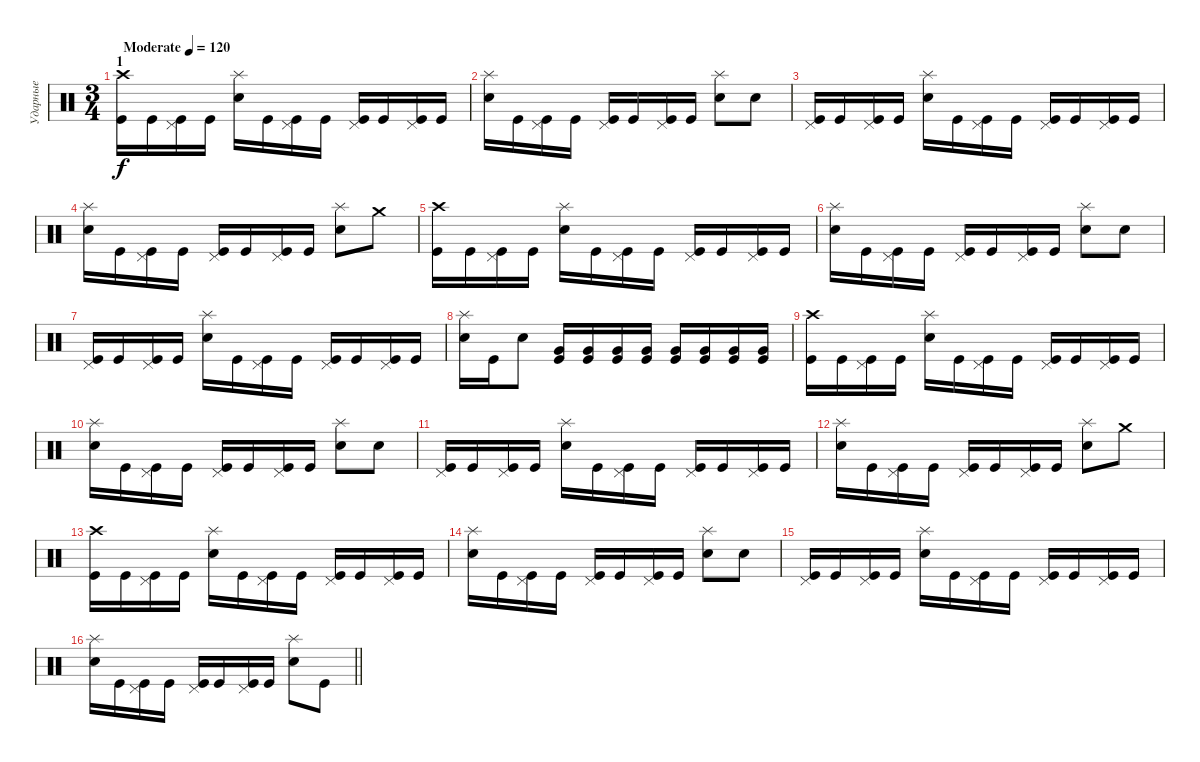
\track ("Ударные" "Ударные") {instrument percussion}
\staff {score}
\articulation defaults
\ts (3 4)
\section ("" "1")
\tempo (120 "Moderate")
\clef neutral
\ks c
("Crash high (hit)" "Kick (hit)").16{dy f} "Kick (hit)".16 ("Pedal Hi-Hat (hit)" "Kick (hit)").16 "Kick (hit)".16 ("Splash (hit)" "Electric Snare (hit)").16 "Kick (hit)".16 ("Pedal Hi-Hat (hit)" "Kick (hit)").16 "Kick (hit)".16 ("Pedal Hi-Hat (hit)" "Kick (hit)").16 "Kick (hit)".16 ("Pedal Hi-Hat (hit)" "Kick (hit)").16 "Kick (hit)".16 |
("Splash (hit)" "Electric Snare (hit)").16 "Kick (hit)".16 ("Pedal Hi-Hat (hit)" "Kick (hit)").16 "Kick (hit)".16 ("Pedal Hi-Hat (hit)" "Kick (hit)").16 "Kick (hit)".16 ("Pedal Hi-Hat (hit)" "Kick (hit)").16 "Kick (hit)".16 ("Splash (hit)" "Electric Snare (hit)").8 "Electric Snare (hit)".8 |
("Pedal Hi-Hat (hit)" "Kick (hit)").16 "Kick (hit)".16 ("Pedal Hi-Hat (hit)" "Kick (hit)").16 "Kick (hit)".16 ("Splash (hit)" "Electric Snare (hit)").16 "Kick (hit)".16 ("Pedal Hi-Hat (hit)" "Kick (hit)").16 "Kick (hit)".16 ("Pedal Hi-Hat (hit)" "Kick (hit)").16 "Kick (hit)".16 ("Pedal Hi-Hat (hit)" "Kick (hit)").16 "Kick (hit)".16 |
("Splash (hit)" "Electric Snare (hit)").16 "Kick (hit)".16 ("Pedal Hi-Hat (hit)" "Kick (hit)").16 "Kick (hit)".16 ("Pedal Hi-Hat (hit)" "Kick (hit)").16 "Kick (hit)".16 ("Pedal Hi-Hat (hit)" "Kick (hit)").16 "Kick (hit)".16 ("Splash (hit)" "Electric Snare (hit)").8 "Crash medium (hit)".8 |
("Crash high (hit)" "Kick (hit)").16 "Kick (hit)".16 ("Pedal Hi-Hat (hit)" "Kick (hit)").16 "Kick (hit)".16 ("Splash (hit)" "Electric Snare (hit)").16 "Kick (hit)".16 ("Pedal Hi-Hat (hit)" "Kick (hit)").16 "Kick (hit)".16 ("Pedal Hi-Hat (hit)" "Kick (hit)").16 "Kick (hit)".16 ("Pedal Hi-Hat (hit)" "Kick (hit)").16 "Kick (hit)".16 |
("Splash (hit)" "Electric Snare (hit)").16 "Kick (hit)".16 ("Pedal Hi-Hat (hit)" "Kick (hit)").16 "Kick (hit)".16 ("Pedal Hi-Hat (hit)" "Kick (hit)").16 "Kick (hit)".16 ("Pedal Hi-Hat (hit)" "Kick (hit)").16 "Kick (hit)".16 ("Splash (hit)" "Electric Snare (hit)").8 "Electric Snare (hit)".8 |
("Pedal Hi-Hat (hit)" "Kick (hit)").16 "Kick (hit)".16 ("Pedal Hi-Hat (hit)" "Kick (hit)").16 "Kick (hit)".16 ("Splash (hit)" "Electric Snare (hit)").16 "Kick (hit)".16 ("Pedal Hi-Hat (hit)" "Kick (hit)").16 "Kick (hit)".16 ("Pedal Hi-Hat (hit)" "Kick (hit)").16 "Kick (hit)".16 ("Pedal Hi-Hat (hit)" "Kick (hit)").16 "Kick (hit)".16 |
("Splash (hit)" "Electric Snare (hit)").16 "Kick (hit)".16 "Electric Snare (hit)".8 ("Very Low Tom (hit)" "Kick (hit)").16 ("Very Low Tom (hit)" "Kick (hit)").16 ("Very Low Tom (hit)" "Kick (hit)").16 ("Very Low Tom (hit)" "Kick (hit)").16 ("Very Low Tom (hit)" "Kick (hit)").16 ("Very Low Tom (hit)" "Kick (hit)").16 ("Very Low Tom (hit)" "Kick (hit)").16 ("Very Low Tom (hit)" "Kick (hit)").16 |
("Crash high (hit)" "Kick (hit)").16 "Kick (hit)".16 ("Pedal Hi-Hat (hit)" "Kick (hit)").16 "Kick (hit)".16 ("Splash (hit)" "Electric Snare (hit)").16 "Kick (hit)".16 ("Pedal Hi-Hat (hit)" "Kick (hit)").16 "Kick (hit)".16 ("Pedal Hi-Hat (hit)" "Kick (hit)").16 "Kick (hit)".16 ("Pedal Hi-Hat (hit)" "Kick (hit)").16 "Kick (hit)".16 |
("Splash (hit)" "Electric Snare (hit)").16 "Kick (hit)".16 ("Pedal Hi-Hat (hit)" "Kick (hit)").16 "Kick (hit)".16 ("Pedal Hi-Hat (hit)" "Kick (hit)").16 "Kick (hit)".16 ("Pedal Hi-Hat (hit)" "Kick (hit)").16 "Kick (hit)".16 ("Splash (hit)" "Electric Snare (hit)").8 "Electric Snare (hit)".8 |
("Pedal Hi-Hat (hit)" "Kick (hit)").16 "Kick (hit)".16 ("Pedal Hi-Hat (hit)" "Kick (hit)").16 "Kick (hit)".16 ("Splash (hit)" "Electric Snare (hit)").16 "Kick (hit)".16 ("Pedal Hi-Hat (hit)" "Kick (hit)").16 "Kick (hit)".16 ("Pedal Hi-Hat (hit)" "Kick (hit)").16 "Kick (hit)".16 ("Pedal Hi-Hat (hit)" "Kick (hit)").16 "Kick (hit)".16 |
("Splash (hit)" "Electric Snare (hit)").16 "Kick (hit)".16 ("Pedal Hi-Hat (hit)" "Kick (hit)").16 "Kick (hit)".16 ("Pedal Hi-Hat (hit)" "Kick (hit)").16 "Kick (hit)".16 ("Pedal Hi-Hat (hit)" "Kick (hit)").16 "Kick (hit)".16 ("Splash (hit)" "Electric Snare (hit)").8 "Crash medium (hit)".8 |
("Crash high (hit)" "Kick (hit)").16 "Kick (hit)".16 ("Pedal Hi-Hat (hit)" "Kick (hit)").16 "Kick (hit)".16 ("Splash (hit)" "Electric Snare (hit)").16 "Kick (hit)".16 ("Pedal Hi-Hat (hit)" "Kick (hit)").16 "Kick (hit)".16 ("Pedal Hi-Hat (hit)" "Kick (hit)").16 "Kick (hit)".16 ("Pedal Hi-Hat (hit)" "Kick (hit)").16 "Kick (hit)".16 |
("Splash (hit)" "Electric Snare (hit)").16 "Kick (hit)".16 ("Pedal Hi-Hat (hit)" "Kick (hit)").16 "Kick (hit)".16 ("Pedal Hi-Hat (hit)" "Kick (hit)").16 "Kick (hit)".16 ("Pedal Hi-Hat (hit)" "Kick (hit)").16 "Kick (hit)".16 ("Splash (hit)" "Electric Snare (hit)").8 "Electric Snare (hit)".8 |
("Pedal Hi-Hat (hit)" "Kick (hit)").16 "Kick (hit)".16 ("Pedal Hi-Hat (hit)" "Kick (hit)").16 "Kick (hit)".16 ("Splash (hit)" "Electric Snare (hit)").16 "Kick (hit)".16 ("Pedal Hi-Hat (hit)" "Kick (hit)").16 "Kick (hit)".16 ("Pedal Hi-Hat (hit)" "Kick (hit)").16 "Kick (hit)".16 ("Pedal Hi-Hat (hit)" "Kick (hit)").16 "Kick (hit)".16 |
\barLineRight lightlight
("Splash (hit)" "Electric Snare (hit)").16 "Kick (hit)".16 ("Pedal Hi-Hat (hit)" "Kick (hit)").16 "Kick (hit)".16 ("Pedal Hi-Hat (hit)" "Kick (hit)").16 "Kick (hit)".16 ("Pedal Hi-Hat (hit)" "Kick (hit)").16 "Kick (hit)".16 ("Splash (hit)" "Electric Snare (hit)").8 "Kick (hit)".8
